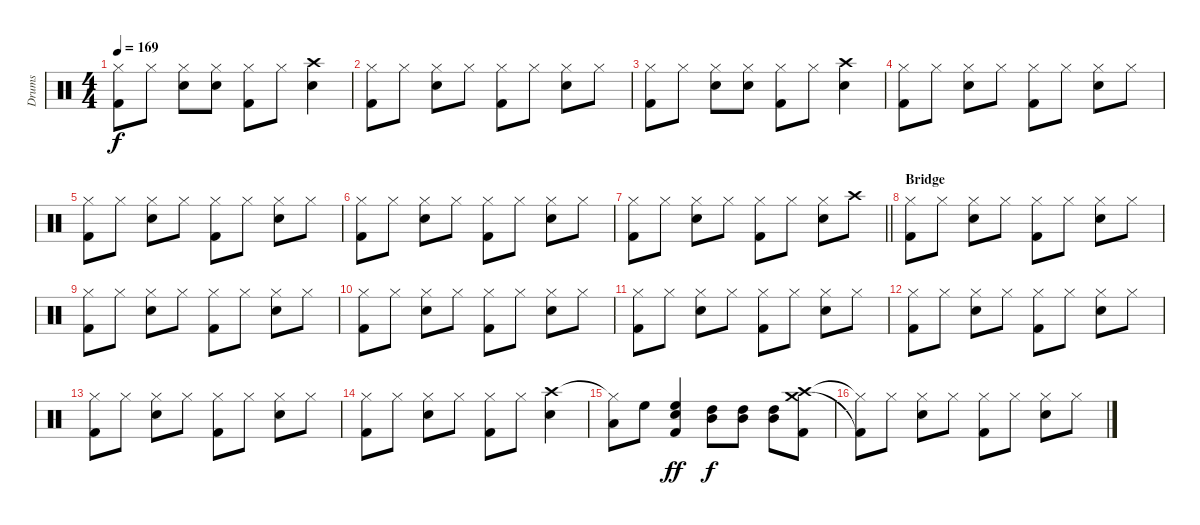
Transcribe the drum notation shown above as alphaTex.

\track ("Drums" "Drums") {instrument percussion}
\staff {score}
\articulation defaults
\ts (4 4)
\tempo 169
\clef neutral
\ks c
("Hi-Hat (closed)" "Kick (hit) 2").8{dy f} "Hi-Hat (closed)".8 ("Hi-Hat (closed)" "Snare (hit) 2").8 ("Hi-Hat (closed)" "Snare (hit) 2").8 ("Hi-Hat (closed)" "Kick (hit) 2").8 "Hi-Hat (closed)".8 ("Crash high (hit)" "Snare (hit) 2").4 |
("Hi-Hat (closed)" "Kick (hit) 2").8 "Hi-Hat (closed)".8 ("Hi-Hat (closed)" "Snare (hit) 2").8 "Hi-Hat (closed)".8 ("Hi-Hat (closed)" "Kick (hit) 2").8 "Hi-Hat (closed)".8 ("Hi-Hat (closed)" "Snare (hit) 2").8 "Hi-Hat (closed)".8 |
("Hi-Hat (closed)" "Kick (hit) 2").8 "Hi-Hat (closed)".8 ("Hi-Hat (closed)" "Snare (hit) 2").8 ("Hi-Hat (closed)" "Snare (hit) 2").8 ("Hi-Hat (closed)" "Kick (hit) 2").8 "Hi-Hat (closed)".8 ("Crash high (hit)" "Snare (hit) 2").4 |
("Hi-Hat (closed)" "Kick (hit) 2").8 "Hi-Hat (closed)".8 ("Hi-Hat (closed)" "Snare (hit) 2").8 "Hi-Hat (closed)".8 ("Hi-Hat (closed)" "Kick (hit) 2").8 "Hi-Hat (closed)".8 ("Hi-Hat (closed)" "Snare (hit) 2").8 "Hi-Hat (closed)".8 |
("Hi-Hat (closed)" "Kick (hit) 2").8 "Hi-Hat (closed)".8 ("Hi-Hat (closed)" "Snare (hit) 2").8 "Hi-Hat (closed)".8 ("Hi-Hat (closed)" "Kick (hit) 2").8 "Hi-Hat (closed)".8 ("Hi-Hat (closed)" "Snare (hit) 2").8 "Hi-Hat (closed)".8 |
("Hi-Hat (closed)" "Kick (hit) 2").8 "Hi-Hat (closed)".8 ("Hi-Hat (closed)" "Snare (hit) 2").8 "Hi-Hat (closed)".8 ("Hi-Hat (closed)" "Kick (hit) 2").8 "Hi-Hat (closed)".8 ("Hi-Hat (closed)" "Snare (hit) 2").8 "Hi-Hat (closed)".8 |
\barLineRight lightlight
("Hi-Hat (closed)" "Kick (hit) 2").8 "Hi-Hat (closed)".8 ("Hi-Hat (closed)" "Snare (hit) 2").8 "Hi-Hat (closed)".8 ("Hi-Hat (closed)" "Kick (hit) 2").8 "Hi-Hat (closed)".8 ("Hi-Hat (closed)" "Snare (hit) 2").8 "Crash high (hit)".8 |
\section ("" "Bridge")
("Hi-Hat (closed)" "Kick (hit) 2").8 "Hi-Hat (closed)".8 ("Hi-Hat (closed)" "Snare (hit) 2").8 "Hi-Hat (closed)".8 ("Hi-Hat (closed)" "Kick (hit) 2").8 "Hi-Hat (closed)".8 ("Hi-Hat (closed)" "Snare (hit) 2").8 "Hi-Hat (closed)".8 |
("Hi-Hat (closed)" "Kick (hit) 2").8 "Hi-Hat (closed)".8 ("Hi-Hat (closed)" "Snare (hit) 2").8 "Hi-Hat (closed)".8 ("Hi-Hat (closed)" "Kick (hit) 2").8 "Hi-Hat (closed)".8 ("Hi-Hat (closed)" "Snare (hit) 2").8 "Hi-Hat (closed)".8 |
("Hi-Hat (closed)" "Kick (hit) 2").8 "Hi-Hat (closed)".8 ("Hi-Hat (closed)" "Snare (hit) 2").8 "Hi-Hat (closed)".8 ("Hi-Hat (closed)" "Kick (hit) 2").8 "Hi-Hat (closed)".8 ("Hi-Hat (closed)" "Snare (hit) 2").8 "Hi-Hat (closed)".8 |
("Hi-Hat (closed)" "Kick (hit) 2").8 "Hi-Hat (closed)".8 ("Hi-Hat (closed)" "Snare (hit) 2").8 "Hi-Hat (closed)".8 ("Hi-Hat (closed)" "Kick (hit) 2").8 "Hi-Hat (closed)".8 ("Hi-Hat (closed)" "Snare (hit) 2").8 "Hi-Hat (closed)".8 |
("Hi-Hat (closed)" "Kick (hit) 2").8 "Hi-Hat (closed)".8 ("Hi-Hat (closed)" "Snare (hit) 2").8 "Hi-Hat (closed)".8 ("Hi-Hat (closed)" "Kick (hit) 2").8 "Hi-Hat (closed)".8 ("Hi-Hat (closed)" "Snare (hit) 2").8 "Hi-Hat (closed)".8 |
("Hi-Hat (closed)" "Kick (hit) 2").8 "Hi-Hat (closed)".8 ("Hi-Hat (closed)" "Snare (hit) 2").8 "Hi-Hat (closed)".8 ("Hi-Hat (closed)" "Kick (hit) 2").8 "Hi-Hat (closed)".8 ("Hi-Hat (closed)" "Snare (hit) 2").8 "Hi-Hat (closed)".8 |
("Hi-Hat (closed)" "Kick (hit) 2").8 "Hi-Hat (closed)".8 ("Hi-Hat (closed)" "Snare (hit) 2").8 "Hi-Hat (closed)".8 ("Hi-Hat (closed)" "Kick (hit) 2").8 "Hi-Hat (closed)".8 ("Crash high (hit)" "Snare (hit) 2").4 |
("Hi-Hat (closed)"{t} "Low Tom (hit)").8 "High Floor Tom (hit)".8 ("High Floor Tom (hit)" "Electric Snare (hit)" "Kick (hit) 2").4{dy ff} ("High Tom (hit)" "Mid Tom (hit)").8{dy f} ("High Tom (hit)" "Mid Tom (hit)").8 ("High Tom (hit)" "Mid Tom (hit)").8 ("Crash high (hit)" "Crash medium (hit)" "Kick (hit) 2").8 |
("Hi-Hat (closed)"{t} "Kick (hit) 2"{t}).8 "Hi-Hat (closed)".8 ("Hi-Hat (closed)" "Snare (hit) 2").8 "Hi-Hat (closed)".8 ("Hi-Hat (closed)" "Kick (hit) 2").8 "Hi-Hat (closed)".8 ("Hi-Hat (closed)" "Snare (hit) 2").8 "Hi-Hat (closed)".8
